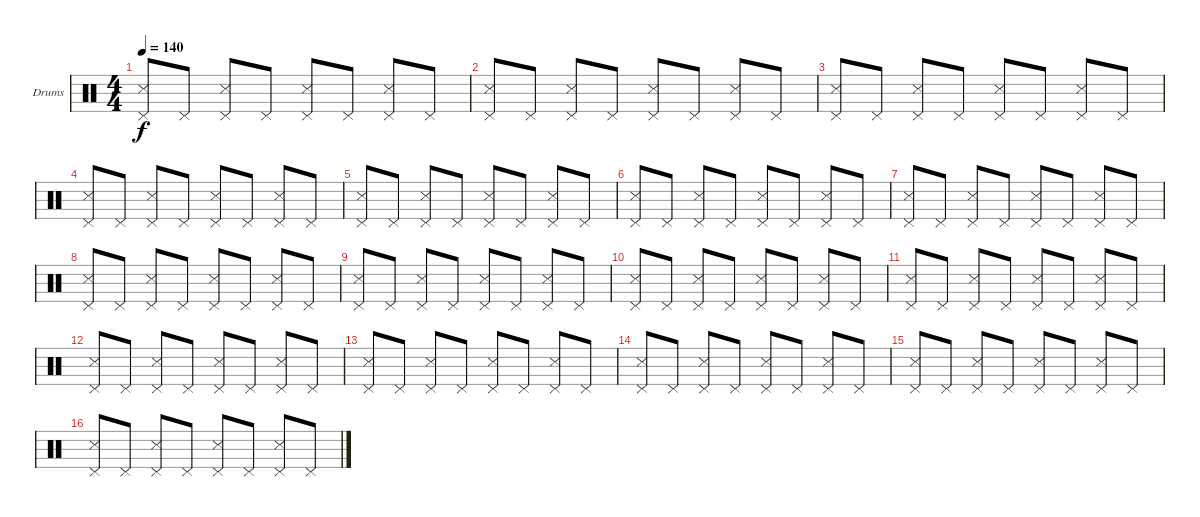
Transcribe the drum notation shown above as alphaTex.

\bracketExtendMode groupsimilarinstruments
\firstSystemTrackNameOrientation horizontal
\otherSystemsTrackNameOrientation horizontal
\track ("Drumkit" "Drums") {instrument percussion}
\staff {score}
\articulation defaults
\ts (4 4)
\tempo 140
\clef neutral
\ks c
("Snare (side stick) 3" "Pedal Hi-Hat (hit)").8{dy f} "Pedal Hi-Hat (hit)".8 ("Snare (side stick) 3" "Pedal Hi-Hat (hit)").8 "Pedal Hi-Hat (hit)".8 ("Snare (side stick) 3" "Pedal Hi-Hat (hit)").8 "Pedal Hi-Hat (hit)".8 ("Snare (side stick) 3" "Pedal Hi-Hat (hit)").8 "Pedal Hi-Hat (hit)".8 |
("Snare (side stick) 3" "Pedal Hi-Hat (hit)").8 "Pedal Hi-Hat (hit)".8 ("Snare (side stick) 3" "Pedal Hi-Hat (hit)").8 "Pedal Hi-Hat (hit)".8 ("Snare (side stick) 3" "Pedal Hi-Hat (hit)").8 "Pedal Hi-Hat (hit)".8 ("Snare (side stick) 3" "Pedal Hi-Hat (hit)").8 "Pedal Hi-Hat (hit)".8 |
("Snare (side stick) 3" "Pedal Hi-Hat (hit)").8 "Pedal Hi-Hat (hit)".8 ("Snare (side stick) 3" "Pedal Hi-Hat (hit)").8 "Pedal Hi-Hat (hit)".8 ("Snare (side stick) 3" "Pedal Hi-Hat (hit)").8 "Pedal Hi-Hat (hit)".8 ("Snare (side stick) 3" "Pedal Hi-Hat (hit)").8 "Pedal Hi-Hat (hit)".8 |
("Snare (side stick) 3" "Pedal Hi-Hat (hit)").8 "Pedal Hi-Hat (hit)".8 ("Snare (side stick) 3" "Pedal Hi-Hat (hit)").8 "Pedal Hi-Hat (hit)".8 ("Snare (side stick) 3" "Pedal Hi-Hat (hit)").8 "Pedal Hi-Hat (hit)".8 ("Snare (side stick) 3" "Pedal Hi-Hat (hit)").8 "Pedal Hi-Hat (hit)".8 |
("Snare (side stick) 3" "Pedal Hi-Hat (hit)").8 "Pedal Hi-Hat (hit)".8 ("Snare (side stick) 3" "Pedal Hi-Hat (hit)").8 "Pedal Hi-Hat (hit)".8 ("Snare (side stick) 3" "Pedal Hi-Hat (hit)").8 "Pedal Hi-Hat (hit)".8 ("Snare (side stick) 3" "Pedal Hi-Hat (hit)").8 "Pedal Hi-Hat (hit)".8 |
("Snare (side stick) 3" "Pedal Hi-Hat (hit)").8 "Pedal Hi-Hat (hit)".8 ("Snare (side stick) 3" "Pedal Hi-Hat (hit)").8 "Pedal Hi-Hat (hit)".8 ("Snare (side stick) 3" "Pedal Hi-Hat (hit)").8 "Pedal Hi-Hat (hit)".8 ("Snare (side stick) 3" "Pedal Hi-Hat (hit)").8 "Pedal Hi-Hat (hit)".8 |
("Snare (side stick) 3" "Pedal Hi-Hat (hit)").8 "Pedal Hi-Hat (hit)".8 ("Snare (side stick) 3" "Pedal Hi-Hat (hit)").8 "Pedal Hi-Hat (hit)".8 ("Snare (side stick) 3" "Pedal Hi-Hat (hit)").8 "Pedal Hi-Hat (hit)".8 ("Snare (side stick) 3" "Pedal Hi-Hat (hit)").8 "Pedal Hi-Hat (hit)".8 |
("Snare (side stick) 3" "Pedal Hi-Hat (hit)").8 "Pedal Hi-Hat (hit)".8 ("Snare (side stick) 3" "Pedal Hi-Hat (hit)").8 "Pedal Hi-Hat (hit)".8 ("Snare (side stick) 3" "Pedal Hi-Hat (hit)").8 "Pedal Hi-Hat (hit)".8 ("Snare (side stick) 3" "Pedal Hi-Hat (hit)").8 "Pedal Hi-Hat (hit)".8 |
("Snare (side stick) 3" "Pedal Hi-Hat (hit)").8 "Pedal Hi-Hat (hit)".8 ("Snare (side stick) 3" "Pedal Hi-Hat (hit)").8 "Pedal Hi-Hat (hit)".8 ("Snare (side stick) 3" "Pedal Hi-Hat (hit)").8 "Pedal Hi-Hat (hit)".8 ("Snare (side stick) 3" "Pedal Hi-Hat (hit)").8 "Pedal Hi-Hat (hit)".8 |
("Snare (side stick) 3" "Pedal Hi-Hat (hit)").8 "Pedal Hi-Hat (hit)".8 ("Snare (side stick) 3" "Pedal Hi-Hat (hit)").8 "Pedal Hi-Hat (hit)".8 ("Snare (side stick) 3" "Pedal Hi-Hat (hit)").8 "Pedal Hi-Hat (hit)".8 ("Snare (side stick) 3" "Pedal Hi-Hat (hit)").8 "Pedal Hi-Hat (hit)".8 |
("Snare (side stick) 3" "Pedal Hi-Hat (hit)").8 "Pedal Hi-Hat (hit)".8 ("Snare (side stick) 3" "Pedal Hi-Hat (hit)").8 "Pedal Hi-Hat (hit)".8 ("Snare (side stick) 3" "Pedal Hi-Hat (hit)").8 "Pedal Hi-Hat (hit)".8 ("Snare (side stick) 3" "Pedal Hi-Hat (hit)").8 "Pedal Hi-Hat (hit)".8 |
("Snare (side stick) 3" "Pedal Hi-Hat (hit)").8 "Pedal Hi-Hat (hit)".8 ("Snare (side stick) 3" "Pedal Hi-Hat (hit)").8 "Pedal Hi-Hat (hit)".8 ("Snare (side stick) 3" "Pedal Hi-Hat (hit)").8 "Pedal Hi-Hat (hit)".8 ("Snare (side stick) 3" "Pedal Hi-Hat (hit)").8 "Pedal Hi-Hat (hit)".8 |
("Snare (side stick) 3" "Pedal Hi-Hat (hit)").8 "Pedal Hi-Hat (hit)".8 ("Snare (side stick) 3" "Pedal Hi-Hat (hit)").8 "Pedal Hi-Hat (hit)".8 ("Snare (side stick) 3" "Pedal Hi-Hat (hit)").8 "Pedal Hi-Hat (hit)".8 ("Snare (side stick) 3" "Pedal Hi-Hat (hit)").8 "Pedal Hi-Hat (hit)".8 |
("Snare (side stick) 3" "Pedal Hi-Hat (hit)").8 "Pedal Hi-Hat (hit)".8 ("Snare (side stick) 3" "Pedal Hi-Hat (hit)").8 "Pedal Hi-Hat (hit)".8 ("Snare (side stick) 3" "Pedal Hi-Hat (hit)").8 "Pedal Hi-Hat (hit)".8 ("Snare (side stick) 3" "Pedal Hi-Hat (hit)").8 "Pedal Hi-Hat (hit)".8 |
("Snare (side stick) 3" "Pedal Hi-Hat (hit)").8 "Pedal Hi-Hat (hit)".8 ("Snare (side stick) 3" "Pedal Hi-Hat (hit)").8 "Pedal Hi-Hat (hit)".8 ("Snare (side stick) 3" "Pedal Hi-Hat (hit)").8 "Pedal Hi-Hat (hit)".8 ("Snare (side stick) 3" "Pedal Hi-Hat (hit)").8 "Pedal Hi-Hat (hit)".8 |
("Snare (side stick) 3" "Pedal Hi-Hat (hit)").8 "Pedal Hi-Hat (hit)".8 ("Snare (side stick) 3" "Pedal Hi-Hat (hit)").8 "Pedal Hi-Hat (hit)".8 ("Snare (side stick) 3" "Pedal Hi-Hat (hit)").8 "Pedal Hi-Hat (hit)".8 ("Snare (side stick) 3" "Pedal Hi-Hat (hit)").8 "Pedal Hi-Hat (hit)".8
